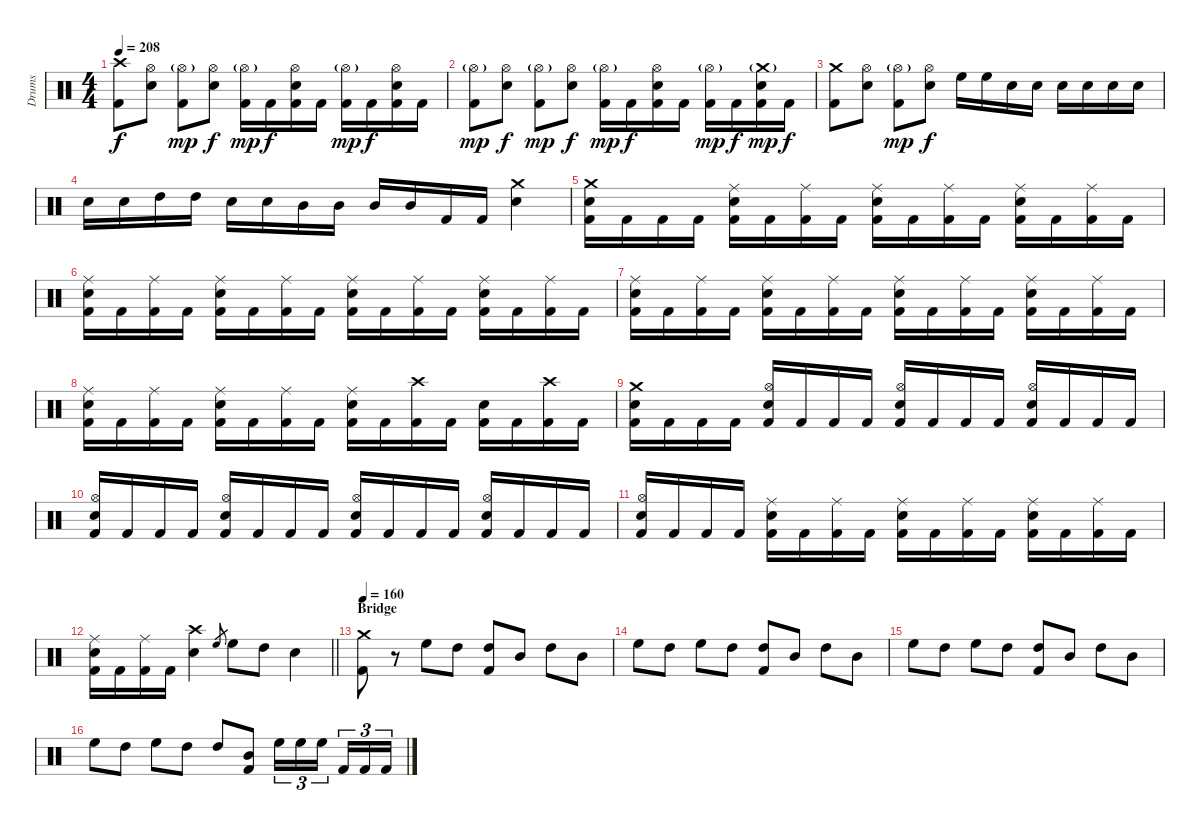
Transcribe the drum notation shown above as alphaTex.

\track ("Drums" "Drums") {instrument percussion}
\staff
\articulation defaults
\ts (4 4)
\tempo 208
\clef neutral
\ks c
("Crash high (hit)" "Kick (hit) 2").8{dy f} ("Hi-Hat (open)" "Electric Snare (hit)").8 ("Hi-Hat (open)"{g} "Kick (hit) 2").8{dy mp} ("Hi-Hat (open)" "Electric Snare (hit)").8{dy f} ("Hi-Hat (open)"{g} "Kick (hit) 2").16{dy mp} "Kick (hit) 2".16{dy f} ("Hi-Hat (open)" "Electric Snare (hit)" "Kick (hit) 2").16 "Kick (hit) 2".16 ("Hi-Hat (open)"{g} "Kick (hit) 2").16{dy mp} "Kick (hit) 2".16{dy f} ("Hi-Hat (open)" "Electric Snare (hit)" "Kick (hit) 2").16 "Kick (hit) 2".16 |
("Hi-Hat (open)"{g} "Kick (hit) 2").8{dy mp} ("Hi-Hat (open)" "Electric Snare (hit)").8{dy f} ("Hi-Hat (open)"{g} "Kick (hit) 2").8{dy mp} ("Hi-Hat (open)" "Electric Snare (hit)").8{dy f} ("Hi-Hat (open)"{g} "Kick (hit) 2").16{dy mp} "Kick (hit) 2".16{dy f} ("Hi-Hat (open)" "Electric Snare (hit)" "Kick (hit) 2").16 "Kick (hit) 2".16 ("Hi-Hat (open)"{g} "Kick (hit) 2").16{dy mp} "Kick (hit) 2".16{dy f} ("Crash medium (hit)"{g} "Electric Snare (hit)" "Kick (hit) 2").16{dy mp} "Kick (hit) 2".16{dy f} |
("Crash medium (hit)" "Kick (hit) 2").8 ("Hi-Hat (open)" "Electric Snare (hit)").8 ("Hi-Hat (open)"{g} "Kick (hit) 2").8{dy mp} ("Hi-Hat (open)" "Electric Snare (hit)").8{dy f} "High Floor Tom (hit)".16 "High Floor Tom (hit)".16 "Electric Snare (hit)".16 "Electric Snare (hit)".16 "Electric Snare (hit)".16 "Electric Snare (hit)".16 "Electric Snare (hit)".16 "Electric Snare (hit)".16 |
"Electric Snare (hit)".16 "Electric Snare (hit)".16 "High Tom (hit)".16 "High Tom (hit)".16 "Electric Snare (hit)".16 "Electric Snare (hit)".16 "Mid Tom (hit)".16 "Mid Tom (hit)".16 "Mid Tom (hit)".16 "Mid Tom (hit)".16 "Kick (hit) 2".16 "Kick (hit) 2".16 ("Crash medium (hit)" "Electric Snare (hit)").4 |
("Crash medium (hit)" "Electric Snare (hit)" "Kick (hit) 2").16 "Kick (hit) 2".16 "Kick (hit) 2".16 "Kick (hit) 2".16 ("Ride (middle)" "Electric Snare (hit)" "Kick (hit) 2").16 "Kick (hit) 2".16 ("Ride (middle)" "Kick (hit) 2").16 "Kick (hit) 2".16 ("Ride (middle)" "Electric Snare (hit)" "Kick (hit) 2").16 "Kick (hit) 2".16 ("Ride (middle)" "Kick (hit) 2").16 "Kick (hit) 2".16 ("Ride (middle)" "Electric Snare (hit)" "Kick (hit) 2").16 "Kick (hit) 2".16 ("Ride (middle)" "Kick (hit) 2").16 "Kick (hit) 2".16 |
("Ride (middle)" "Electric Snare (hit)" "Kick (hit) 2").16 "Kick (hit) 2".16 ("Ride (middle)" "Kick (hit) 2").16 "Kick (hit) 2".16 ("Ride (middle)" "Electric Snare (hit)" "Kick (hit) 2").16 "Kick (hit) 2".16 ("Ride (middle)" "Kick (hit) 2").16 "Kick (hit) 2".16 ("Ride (middle)" "Electric Snare (hit)" "Kick (hit) 2").16 "Kick (hit) 2".16 ("Ride (middle)" "Kick (hit) 2").16 "Kick (hit) 2".16 ("Ride (middle)" "Electric Snare (hit)" "Kick (hit) 2").16 "Kick (hit) 2".16 ("Ride (middle)" "Kick (hit) 2").16 "Kick (hit) 2".16 |
("Ride (middle)" "Electric Snare (hit)" "Kick (hit) 2").16 "Kick (hit) 2".16 ("Ride (middle)" "Kick (hit) 2").16 "Kick (hit) 2".16 ("Ride (middle)" "Electric Snare (hit)" "Kick (hit) 2").16 "Kick (hit) 2".16 ("Ride (middle)" "Kick (hit) 2").16 "Kick (hit) 2".16 ("Ride (middle)" "Electric Snare (hit)" "Kick (hit) 2").16 "Kick (hit) 2".16 ("Ride (middle)" "Kick (hit) 2").16 "Kick (hit) 2".16 ("Ride (middle)" "Electric Snare (hit)" "Kick (hit) 2").16 "Kick (hit) 2".16 ("Ride (middle)" "Kick (hit) 2").16 "Kick (hit) 2".16 |
("Ride (middle)" "Electric Snare (hit)" "Kick (hit) 2").16 "Kick (hit) 2".16 ("Ride (middle)" "Kick (hit) 2").16 "Kick (hit) 2".16 ("Ride (middle)" "Electric Snare (hit)" "Kick (hit) 2").16 "Kick (hit) 2".16 ("Ride (middle)" "Kick (hit) 2").16 "Kick (hit) 2".16 ("Ride (middle)" "Electric Snare (hit)" "Kick (hit) 2").16 "Kick (hit) 2".16 ("Crash high (hit)" "Kick (hit) 2").16 "Kick (hit) 2".16 ("Electric Snare (hit)" "Kick (hit) 2").16 "Kick (hit) 2".16 ("Crash high (hit)" "Kick (hit) 2").16 "Kick (hit) 2".16 |
("Crash medium (hit)" "Electric Snare (hit)" "Kick (hit) 2").16 "Kick (hit) 2".16 "Kick (hit) 2".16 "Kick (hit) 2".16 ("Hi-Hat (open)" "Electric Snare (hit)" "Kick (hit) 2").16 "Kick (hit) 2".16 "Kick (hit) 2".16 "Kick (hit) 2".16 ("Hi-Hat (open)" "Electric Snare (hit)" "Kick (hit) 2").16 "Kick (hit) 2".16 "Kick (hit) 2".16 "Kick (hit) 2".16 ("Hi-Hat (open)" "Electric Snare (hit)" "Kick (hit) 2").16 "Kick (hit) 2".16 "Kick (hit) 2".16 "Kick (hit) 2".16 |
("Hi-Hat (open)" "Electric Snare (hit)" "Kick (hit) 2").16 "Kick (hit) 2".16 "Kick (hit) 2".16 "Kick (hit) 2".16 ("Hi-Hat (open)" "Electric Snare (hit)" "Kick (hit) 2").16 "Kick (hit) 2".16 "Kick (hit) 2".16 "Kick (hit) 2".16 ("Hi-Hat (open)" "Electric Snare (hit)" "Kick (hit) 2").16 "Kick (hit) 2".16 "Kick (hit) 2".16 "Kick (hit) 2".16 ("Hi-Hat (open)" "Electric Snare (hit)" "Kick (hit) 2").16 "Kick (hit) 2".16 "Kick (hit) 2".16 "Kick (hit) 2".16 |
("Hi-Hat (open)" "Electric Snare (hit)" "Kick (hit) 2").16 "Kick (hit) 2".16 "Kick (hit) 2".16 "Kick (hit) 2".16 ("Ride (middle)" "Electric Snare (hit)" "Kick (hit) 2").16 "Kick (hit) 2".16 ("Ride (middle)" "Kick (hit) 2").16 "Kick (hit) 2".16 ("Ride (middle)" "Electric Snare (hit)" "Kick (hit) 2").16 "Kick (hit) 2".16 ("Ride (middle)" "Kick (hit) 2").16 "Kick (hit) 2".16 ("Ride (middle)" "Electric Snare (hit)" "Kick (hit) 2").16 "Kick (hit) 2".16 ("Ride (middle)" "Kick (hit) 2").16 "Kick (hit) 2".16 |
\barLineRight lightlight
("Ride (middle)" "Electric Snare (hit)" "Kick (hit) 2").16 "Kick (hit) 2".16 ("Ride (middle)" "Kick (hit) 2").16 "Kick (hit) 2".16 ("Crash high (hit)" "Electric Snare (hit)").4 "High Floor Tom (hit)".8{gr} "High Floor Tom (hit)".8 "High Tom (hit)".8 "Electric Snare (hit)".4 |
\section ("" "Bridge")
\tempo 160
("Crash medium (hit)" "Kick (hit) 2").8 r.8 "High Floor Tom (hit)".8 "High Tom (hit)".8 ("High Tom (hit)" "Kick (hit) 2").8 "Mid Tom (hit)".8 "High Tom (hit)".8 "Mid Tom (hit)".8 |
"High Floor Tom (hit)".8 "High Tom (hit)".8 "High Floor Tom (hit)".8 "High Tom (hit)".8 ("High Tom (hit)" "Kick (hit) 2").8 "Mid Tom (hit)".8 "High Tom (hit)".8 "Mid Tom (hit)".8 |
"High Floor Tom (hit)".8 "High Tom (hit)".8 "High Floor Tom (hit)".8 "High Tom (hit)".8 ("High Tom (hit)" "Kick (hit) 2").8 "Mid Tom (hit)".8 "High Tom (hit)".8 "Mid Tom (hit)".8 |
"High Floor Tom (hit)".8 "High Tom (hit)".8 "High Floor Tom (hit)".8 "High Tom (hit)".8 "High Tom (hit)".8 ("Mid Tom (hit)" "Kick (hit) 2").8 "High Floor Tom (hit)".16{tu (3 2)} "High Floor Tom (hit)".16{tu (3 2)} "High Floor Tom (hit)".16{tu (3 2) beam splitsecondary} "Kick (hit) 2".16{tu (3 2)} "Kick (hit) 2".16{tu (3 2)} "Kick (hit) 2".16{tu (3 2)}
